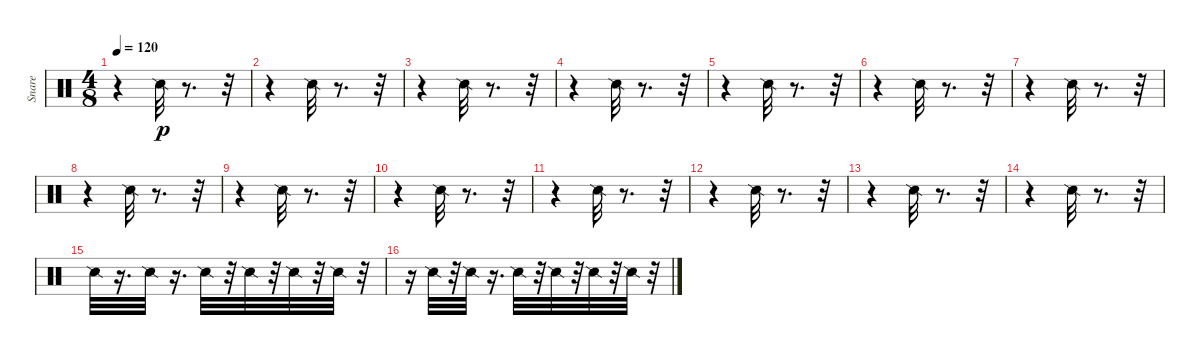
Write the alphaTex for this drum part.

\track ("Snare" "Snare") {instrument percussion}
\staff {score}
\articulation defaults
\ts (4 8)
\tempo 120
\clef neutral
\ks c
r.4{dy p} "Snare (side stick) 2".32 r.8{d} r.32 |
r.4 "Snare (side stick) 2".32 r.8{d} r.32 |
r.4 "Snare (side stick) 2".32 r.8{d} r.32 |
r.4 "Snare (side stick) 2".32 r.8{d} r.32 |
r.4 "Snare (side stick) 2".32 r.8{d} r.32 |
r.4 "Snare (side stick) 2".32 r.8{d} r.32 |
r.4 "Snare (side stick) 2".32 r.8{d} r.32 |
r.4 "Snare (side stick) 2".32 r.8{d} r.32 |
r.4 "Snare (side stick) 2".32 r.8{d} r.32 |
r.4 "Snare (side stick) 2".32 r.8{d} r.32 |
r.4 "Snare (side stick) 2".32 r.8{d} r.32 |
r.4 "Snare (side stick) 2".32 r.8{d} r.32 |
r.4 "Snare (side stick) 2".32 r.8{d} r.32 |
r.4 "Snare (side stick) 2".32 r.8{d} r.32 |
"Snare (side stick) 2".32 r.16{d} "Snare (side stick) 2".32 r.16{d} "Snare (side stick) 2".32 r.32 "Snare (side stick) 2".32 r.32 "Snare (side stick) 2".32 r.32 "Snare (side stick) 2".32 r.32 |
r.16 "Snare (side stick) 2".32 r.32 "Snare (side stick) 2".32 r.16{d} "Snare (side stick) 2".32 r.32 "Snare (side stick) 2".32 r.32 "Snare (side stick) 2".32 r.32 "Snare (side stick) 2".32 r.32
